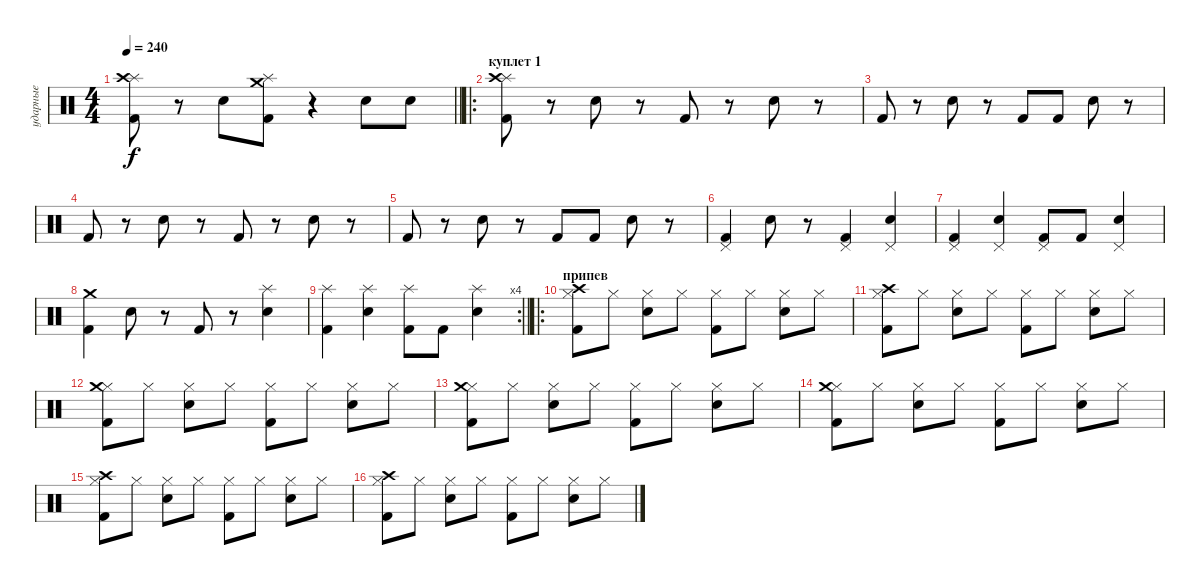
\track ("ударные" "ударные") {instrument percussion}
\staff {score}
\articulation defaults
\ts (4 4)
\tempo 240
\clef neutral
\barLineRight lightlight
\ks c
("Splash (hit)" "Crash high (hit)" "Kick (hit) 2").8{dy f} r.8 "Electric Snare (hit)".8 ("Splash (hit)" "Crash medium (hit)" "Kick (hit) 2").8 r.4 "Electric Snare (hit)".8 "Electric Snare (hit)".8 |
\ro
\section ("" "куплет 1")
("Splash (hit)" "Crash high (hit)" "Kick (hit) 2").8 r.8 "Electric Snare (hit)".8 r.8 "Kick (hit) 2".8 r.8 "Electric Snare (hit)".8 r.8 |
"Kick (hit) 2".8 r.8 "Electric Snare (hit)".8 r.8 "Kick (hit) 2".8 "Kick (hit) 2".8 "Electric Snare (hit)".8 r.8 |
"Kick (hit) 2".8 r.8 "Electric Snare (hit)".8 r.8 "Kick (hit) 2".8 r.8 "Electric Snare (hit)".8 r.8 |
"Kick (hit) 2".8 r.8 "Electric Snare (hit)".8 r.8 "Kick (hit) 2".8 "Kick (hit) 2".8 "Electric Snare (hit)".8 r.8 |
("Pedal Hi-Hat (hit)" "Kick (hit) 2").4 "Electric Snare (hit)".8 r.8 ("Pedal Hi-Hat (hit)" "Kick (hit) 2").4 ("Pedal Hi-Hat (hit)" "Electric Snare (hit)").4 |
("Pedal Hi-Hat (hit)" "Kick (hit) 2").4 ("Pedal Hi-Hat (hit)" "Electric Snare (hit)").4 ("Pedal Hi-Hat (hit)" "Kick (hit) 2").8 "Kick (hit) 2".8 ("Pedal Hi-Hat (hit)" "Electric Snare (hit)").4 |
("Crash medium (hit)" "Kick (hit) 2").4 "Electric Snare (hit)".8 r.8 "Kick (hit) 2".8 r.8 ("Splash (hit)" "Electric Snare (hit)").4 |
\rc 4
\barLineRight lightlight
("Splash (hit)" "Kick (hit) 2").4 ("Splash (hit)" "Electric Snare (hit)").4 ("Splash (hit)" "Kick (hit) 2").8 "Kick (hit) 2".8 ("Splash (hit)" "Electric Snare (hit)").4 |
\ro
\section ("" "припев")
("Hi-Hat (closed)" "Crash high (hit)" "Kick (hit) 2").8 "Hi-Hat (closed)".8 ("Hi-Hat (closed)" "Electric Snare (hit)").8 "Hi-Hat (closed)".8 ("Hi-Hat (closed)" "Kick (hit) 2").8 "Hi-Hat (closed)".8 ("Hi-Hat (closed)" "Electric Snare (hit)").8 "Hi-Hat (closed)".8 |
("Hi-Hat (closed)" "Crash high (hit)" "Kick (hit) 2").8 "Hi-Hat (closed)".8 ("Hi-Hat (closed)" "Electric Snare (hit)").8 "Hi-Hat (closed)".8 ("Hi-Hat (closed)" "Kick (hit) 2").8 "Hi-Hat (closed)".8 ("Hi-Hat (closed)" "Electric Snare (hit)").8 "Hi-Hat (closed)".8 |
("Hi-Hat (closed)" "Crash medium (hit)" "Kick (hit) 2").8 "Hi-Hat (closed)".8 ("Hi-Hat (closed)" "Electric Snare (hit)").8 "Hi-Hat (closed)".8 ("Hi-Hat (closed)" "Kick (hit) 2").8 "Hi-Hat (closed)".8 ("Hi-Hat (closed)" "Electric Snare (hit)").8 "Hi-Hat (closed)".8 |
("Hi-Hat (closed)" "Crash medium (hit)" "Kick (hit) 2").8 "Hi-Hat (closed)".8 ("Hi-Hat (closed)" "Electric Snare (hit)").8 "Hi-Hat (closed)".8 ("Hi-Hat (closed)" "Kick (hit) 2").8 "Hi-Hat (closed)".8 ("Hi-Hat (closed)" "Electric Snare (hit)").8 "Hi-Hat (closed)".8 |
("Hi-Hat (closed)" "Kick (hit) 2" "Crash medium (hit)").8 "Hi-Hat (closed)".8 ("Hi-Hat (closed)" "Electric Snare (hit)").8 "Hi-Hat (closed)".8 ("Hi-Hat (closed)" "Kick (hit) 2").8 "Hi-Hat (closed)".8 ("Hi-Hat (closed)" "Electric Snare (hit)").8 "Hi-Hat (closed)".8 |
("Hi-Hat (closed)" "Kick (hit) 2" "Crash high (hit)").8 "Hi-Hat (closed)".8 ("Hi-Hat (closed)" "Electric Snare (hit)").8 "Hi-Hat (closed)".8 ("Hi-Hat (closed)" "Kick (hit) 2").8 "Hi-Hat (closed)".8 ("Hi-Hat (closed)" "Electric Snare (hit)").8 "Hi-Hat (closed)".8 |
("Hi-Hat (closed)" "Kick (hit) 2" "Crash high (hit)").8 "Hi-Hat (closed)".8 ("Hi-Hat (closed)" "Electric Snare (hit)").8 "Hi-Hat (closed)".8 ("Hi-Hat (closed)" "Kick (hit) 2").8 "Hi-Hat (closed)".8 ("Hi-Hat (closed)" "Electric Snare (hit)").8 "Hi-Hat (closed)".8
